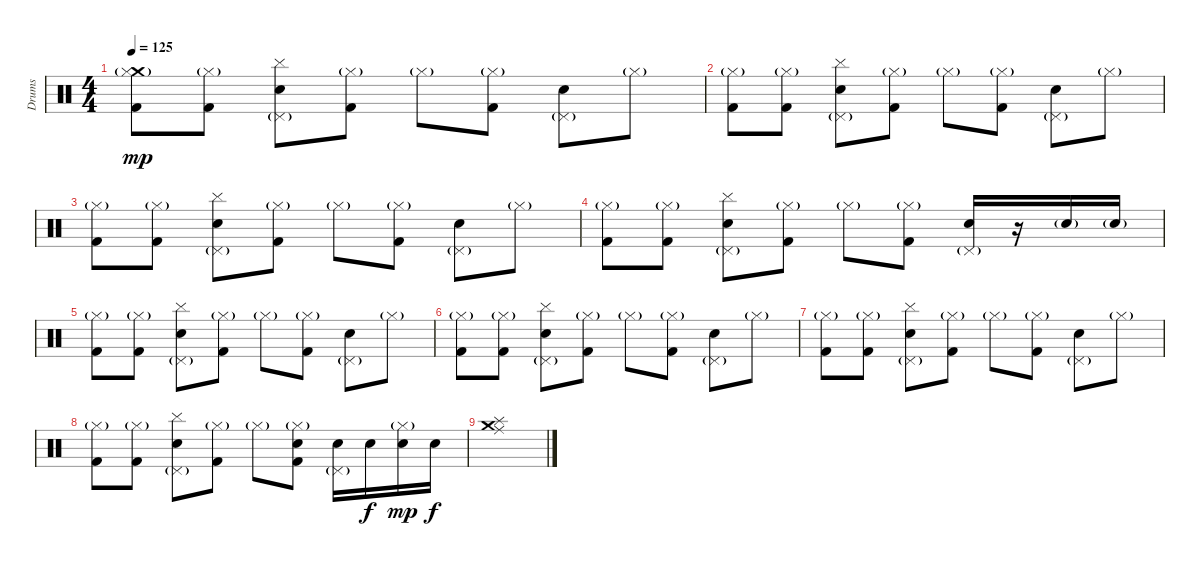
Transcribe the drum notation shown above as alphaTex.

\track ("Drums" "Drums") {instrument percussion}
\staff {score}
\articulation defaults
\ts (4 4)
\tempo 125
\clef neutral
\ks c
("Crash medium (hit)" "Hi-Hat (closed)"{g} "Kick (hit) 2").8{dy mp} ("Hi-Hat (closed)"{g} "Kick (hit) 2").8 ("Electric Snare (hit)" "Pedal Hi-Hat (hit)"{g} "Cymbal (hit)").8 ("Hi-Hat (closed)"{g} "Kick (hit) 2").8 "Hi-Hat (closed)"{g}.8 ("Hi-Hat (closed)"{g} "Kick (hit) 2").8 ("Electric Snare (hit)" "Pedal Hi-Hat (hit)"{g}).8 "Hi-Hat (closed)"{g}.8 |
("Hi-Hat (closed)"{g} "Kick (hit) 2").8 ("Hi-Hat (closed)"{g} "Kick (hit) 2").8 ("Electric Snare (hit)" "Pedal Hi-Hat (hit)"{g} "Cymbal (hit)").8 ("Hi-Hat (closed)"{g} "Kick (hit) 2").8 "Hi-Hat (closed)"{g}.8 ("Hi-Hat (closed)"{g} "Kick (hit) 2").8 ("Electric Snare (hit)" "Pedal Hi-Hat (hit)"{g}).8 "Hi-Hat (closed)"{g}.8 |
("Hi-Hat (closed)"{g} "Kick (hit) 2").8 ("Hi-Hat (closed)"{g} "Kick (hit) 2").8 ("Electric Snare (hit)" "Pedal Hi-Hat (hit)"{g} "Cymbal (hit)").8 ("Hi-Hat (closed)"{g} "Kick (hit) 2").8 "Hi-Hat (closed)"{g}.8 ("Hi-Hat (closed)"{g} "Kick (hit) 2").8 ("Electric Snare (hit)" "Pedal Hi-Hat (hit)"{g}).8 "Hi-Hat (closed)"{g}.8 |
("Hi-Hat (closed)"{g} "Kick (hit) 2").8 ("Hi-Hat (closed)"{g} "Kick (hit) 2").8 ("Electric Snare (hit)" "Pedal Hi-Hat (hit)"{g} "Cymbal (hit)").8 ("Hi-Hat (closed)"{g} "Kick (hit) 2").8 "Hi-Hat (closed)"{g}.8 ("Hi-Hat (closed)"{g} "Kick (hit) 2").8 ("Electric Snare (hit)" "Pedal Hi-Hat (hit)"{g}).16 r.16 "Electric Snare (hit)"{g}.16 "Electric Snare (hit)"{g}.16 |
("Hi-Hat (closed)"{g} "Kick (hit) 2").8 ("Hi-Hat (closed)"{g} "Kick (hit) 2").8 ("Electric Snare (hit)" "Pedal Hi-Hat (hit)"{g} "Cymbal (hit)").8 ("Hi-Hat (closed)"{g} "Kick (hit) 2").8 "Hi-Hat (closed)"{g}.8 ("Hi-Hat (closed)"{g} "Kick (hit) 2").8 ("Electric Snare (hit)" "Pedal Hi-Hat (hit)"{g}).8 "Hi-Hat (closed)"{g}.8 |
("Hi-Hat (closed)"{g} "Kick (hit) 2").8 ("Hi-Hat (closed)"{g} "Kick (hit) 2").8 ("Electric Snare (hit)" "Pedal Hi-Hat (hit)"{g} "Cymbal (hit)").8 ("Hi-Hat (closed)"{g} "Kick (hit) 2").8 "Hi-Hat (closed)"{g}.8 ("Hi-Hat (closed)"{g} "Kick (hit) 2").8 ("Electric Snare (hit)" "Pedal Hi-Hat (hit)"{g}).8 "Hi-Hat (closed)"{g}.8 |
("Hi-Hat (closed)"{g} "Kick (hit) 2").8 ("Hi-Hat (closed)"{g} "Kick (hit) 2").8 ("Electric Snare (hit)" "Pedal Hi-Hat (hit)"{g} "Cymbal (hit)").8 ("Hi-Hat (closed)"{g} "Kick (hit) 2").8 "Hi-Hat (closed)"{g}.8 ("Hi-Hat (closed)"{g} "Kick (hit) 2").8 ("Electric Snare (hit)" "Pedal Hi-Hat (hit)"{g}).8 "Hi-Hat (closed)"{g}.8 |
("Hi-Hat (closed)"{g} "Kick (hit) 2").8 ("Hi-Hat (closed)"{g} "Kick (hit) 2").8 ("Electric Snare (hit)" "Pedal Hi-Hat (hit)"{g} "Cymbal (hit)").8 ("Hi-Hat (closed)"{g} "Kick (hit) 2").8 "Hi-Hat (closed)"{g}.8 ("Electric Snare (hit)" "Hi-Hat (closed)"{g} "Kick (hit) 2").8 ("Electric Snare (hit)" "Pedal Hi-Hat (hit)"{g}).16 "Electric Snare (hit)".16{dy f} ("Electric Snare (hit)" "Hi-Hat (closed)"{g}).16{dy mp} "Electric Snare (hit)".16{dy f} |
("Crash medium (hit)" "Ride (middle)" "Splash (hit)").1
